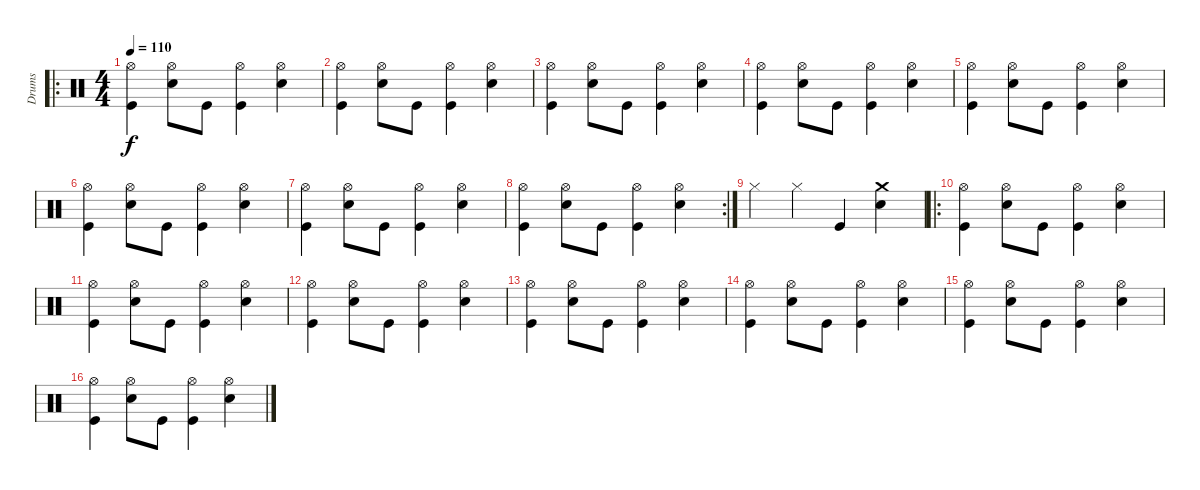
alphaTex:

\track ("Drums" "Drums") {instrument percussion}
\staff {score}
\articulation defaults
\ro
\ts (4 4)
\tempo 110
\clef neutral
\ks c
("Hi-Hat (open)" "Kick (hit)").4{dy f} ("Hi-Hat (open)" "Snare (hit) 2").8 "Kick (hit)".8 ("Hi-Hat (open)" "Kick (hit)").4 ("Hi-Hat (open)" "Snare (hit) 2").4 |
("Hi-Hat (open)" "Kick (hit)").4 ("Hi-Hat (open)" "Snare (hit) 2").8 "Kick (hit)".8 ("Hi-Hat (open)" "Kick (hit)").4 ("Hi-Hat (open)" "Snare (hit) 2").4 |
("Hi-Hat (open)" "Kick (hit)").4 ("Hi-Hat (open)" "Snare (hit) 2").8 "Kick (hit)".8 ("Hi-Hat (open)" "Kick (hit)").4 ("Hi-Hat (open)" "Snare (hit) 2").4 |
("Hi-Hat (open)" "Kick (hit)").4 ("Hi-Hat (open)" "Snare (hit) 2").8 "Kick (hit)".8 ("Hi-Hat (open)" "Kick (hit)").4 ("Hi-Hat (open)" "Snare (hit) 2").4 |
("Hi-Hat (open)" "Kick (hit)").4 ("Hi-Hat (open)" "Snare (hit) 2").8 "Kick (hit)".8 ("Hi-Hat (open)" "Kick (hit)").4 ("Hi-Hat (open)" "Snare (hit) 2").4 |
("Hi-Hat (open)" "Kick (hit)").4 ("Hi-Hat (open)" "Snare (hit) 2").8 "Kick (hit)".8 ("Hi-Hat (open)" "Kick (hit)").4 ("Hi-Hat (open)" "Snare (hit) 2").4 |
("Hi-Hat (open)" "Kick (hit)").4 ("Hi-Hat (open)" "Snare (hit) 2").8 "Kick (hit)".8 ("Hi-Hat (open)" "Kick (hit)").4 ("Hi-Hat (open)" "Snare (hit) 2").4 |
\rc 2
("Hi-Hat (open)" "Kick (hit)").4 ("Hi-Hat (open)" "Snare (hit) 2").8 "Kick (hit)".8 ("Hi-Hat (open)" "Kick (hit)").4 ("Hi-Hat (open)" "Snare (hit) 2").4 |
"Hi-Hat (closed)".4 "Hi-Hat (closed)".4 "Kick (hit)".4 ("Crash medium (hit)" "Snare (hit) 2").4 |
\ro
("Hi-Hat (open)" "Kick (hit)").4 ("Hi-Hat (open)" "Snare (hit) 2").8 "Kick (hit)".8 ("Hi-Hat (open)" "Kick (hit)").4 ("Hi-Hat (open)" "Snare (hit) 2").4 |
("Hi-Hat (open)" "Kick (hit)").4 ("Hi-Hat (open)" "Snare (hit) 2").8 "Kick (hit)".8 ("Hi-Hat (open)" "Kick (hit)").4 ("Hi-Hat (open)" "Snare (hit) 2").4 |
("Hi-Hat (open)" "Kick (hit)").4 ("Hi-Hat (open)" "Snare (hit) 2").8 "Kick (hit)".8 ("Hi-Hat (open)" "Kick (hit)").4 ("Hi-Hat (open)" "Snare (hit) 2").4 |
("Hi-Hat (open)" "Kick (hit)").4 ("Hi-Hat (open)" "Snare (hit) 2").8 "Kick (hit)".8 ("Hi-Hat (open)" "Kick (hit)").4 ("Hi-Hat (open)" "Snare (hit) 2").4 |
("Hi-Hat (open)" "Kick (hit)").4 ("Hi-Hat (open)" "Snare (hit) 2").8 "Kick (hit)".8 ("Hi-Hat (open)" "Kick (hit)").4 ("Hi-Hat (open)" "Snare (hit) 2").4 |
("Hi-Hat (open)" "Kick (hit)").4 ("Hi-Hat (open)" "Snare (hit) 2").8 "Kick (hit)".8 ("Hi-Hat (open)" "Kick (hit)").4 ("Hi-Hat (open)" "Snare (hit) 2").4 |
("Hi-Hat (open)" "Kick (hit)").4 ("Hi-Hat (open)" "Snare (hit) 2").8 "Kick (hit)".8 ("Hi-Hat (open)" "Kick (hit)").4 ("Hi-Hat (open)" "Snare (hit) 2").4
